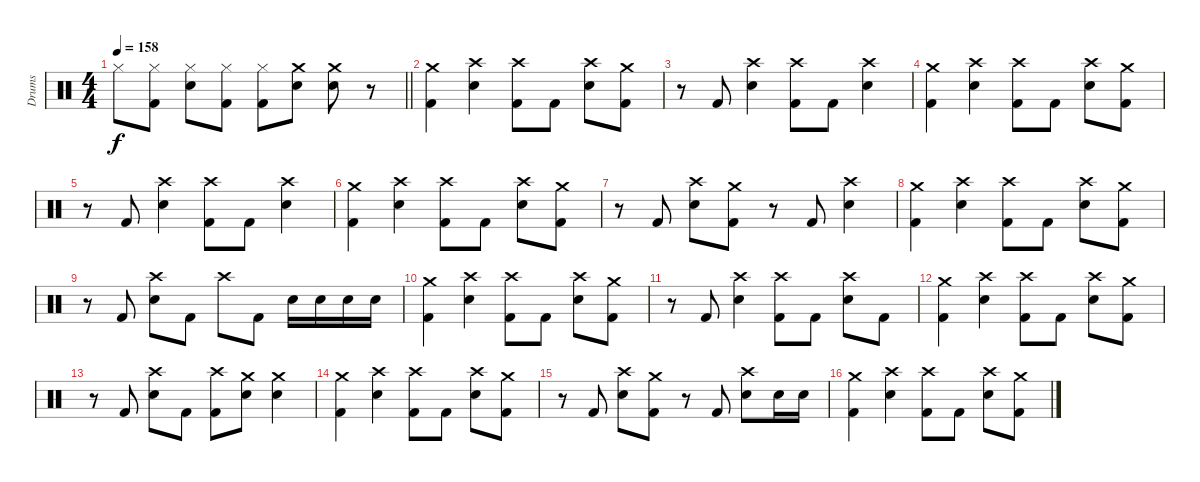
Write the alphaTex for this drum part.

\track ("Drums" "Drums") {instrument percussion}
\staff {score}
\articulation defaults
\ts (4 4)
\tempo 158
\clef neutral
\barLineRight lightlight
\ks c "Hi-Hat (closed)".8{dy f}
("Hi-Hat (closed)" "Kick (hit) 2").8 ("Hi-Hat (closed)" "Electric Snare (hit)").8 ("Hi-Hat (closed)" "Kick (hit) 2").8 ("Hi-Hat (closed)" "Kick (hit) 2").8 ("Crash medium (hit)" "Electric Snare (hit)").8 ("Crash medium (hit)" "Electric Snare (hit)").8 r.8 |
("Crash medium (hit)" "Kick (hit) 2").4 ("Crash high (hit)" "Electric Snare (hit)").4 ("Crash high (hit)" "Kick (hit) 2").8 "Kick (hit) 2".8 ("Crash high (hit)" "Electric Snare (hit)").8 ("Crash medium (hit)" "Kick (hit) 2").8 |
r.8 "Kick (hit) 2".8 ("Crash high (hit)" "Electric Snare (hit)").4 ("Crash high (hit)" "Kick (hit) 2").8 "Kick (hit) 2".8 ("Crash high (hit)" "Electric Snare (hit)").4 |
("Crash medium (hit)" "Kick (hit) 2").4 ("Crash high (hit)" "Electric Snare (hit)").4 ("Crash high (hit)" "Kick (hit) 2").8 "Kick (hit) 2".8 ("Crash high (hit)" "Electric Snare (hit)").8 ("Crash medium (hit)" "Kick (hit) 2").8 |
r.8 "Kick (hit) 2".8 ("Crash high (hit)" "Electric Snare (hit)").4 ("Crash high (hit)" "Kick (hit) 2").8 "Kick (hit) 2".8 ("Crash high (hit)" "Electric Snare (hit)").4 |
("Crash medium (hit)" "Kick (hit) 2").4 ("Crash high (hit)" "Electric Snare (hit)").4 ("Crash high (hit)" "Kick (hit) 2").8 "Kick (hit) 2".8 ("Crash high (hit)" "Electric Snare (hit)").8 ("Crash medium (hit)" "Kick (hit) 2").8 |
r.8 "Kick (hit) 2".8 ("Crash high (hit)" "Electric Snare (hit)").8 ("Crash medium (hit)" "Kick (hit) 2").8 r.8 "Kick (hit) 2".8 ("Crash high (hit)" "Electric Snare (hit)").4 |
("Crash medium (hit)" "Kick (hit) 2").4 ("Crash high (hit)" "Electric Snare (hit)").4 ("Crash high (hit)" "Kick (hit) 2").8 "Kick (hit) 2".8 ("Crash high (hit)" "Electric Snare (hit)").8 ("Crash medium (hit)" "Kick (hit) 2").8 |
r.8 "Kick (hit) 2".8 ("Crash high (hit)" "Electric Snare (hit)").8 "Kick (hit) 2".8 "Crash high (hit)".8 "Kick (hit) 2".8 "Electric Snare (hit)".16 "Electric Snare (hit)".16 "Electric Snare (hit)".16 "Electric Snare (hit)".16 |
("Crash medium (hit)" "Kick (hit) 2").4 ("Crash high (hit)" "Electric Snare (hit)").4 ("Crash high (hit)" "Kick (hit) 2").8 "Kick (hit) 2".8 ("Crash high (hit)" "Electric Snare (hit)").8 ("Crash medium (hit)" "Kick (hit) 2").8 |
r.8 "Kick (hit) 2".8 ("Crash high (hit)" "Electric Snare (hit)").4 ("Crash high (hit)" "Kick (hit) 2").8 "Kick (hit) 2".8 ("Crash high (hit)" "Electric Snare (hit)").8 "Kick (hit) 2".8 |
("Crash medium (hit)" "Kick (hit) 2").4 ("Crash high (hit)" "Electric Snare (hit)").4 ("Crash high (hit)" "Kick (hit) 2").8 "Kick (hit) 2".8 ("Crash high (hit)" "Electric Snare (hit)").8 ("Crash medium (hit)" "Kick (hit) 2").8 |
r.8 "Kick (hit) 2".8 ("Crash high (hit)" "Electric Snare (hit)").8 "Kick (hit) 2".8 ("Crash high (hit)" "Kick (hit) 2").8 ("Crash medium (hit)" "Electric Snare (hit)").8 ("Crash medium (hit)" "Electric Snare (hit)").4 |
("Crash medium (hit)" "Kick (hit) 2").4 ("Crash high (hit)" "Electric Snare (hit)").4 ("Crash high (hit)" "Kick (hit) 2").8 "Kick (hit) 2".8 ("Crash high (hit)" "Electric Snare (hit)").8 ("Crash medium (hit)" "Kick (hit) 2").8 |
r.8 "Kick (hit) 2".8 ("Crash high (hit)" "Electric Snare (hit)").8 ("Crash medium (hit)" "Kick (hit) 2").8 r.8 "Kick (hit) 2".8 ("Crash high (hit)" "Electric Snare (hit)").8 "Electric Snare (hit)".16 "Electric Snare (hit)".16 |
("Crash medium (hit)" "Kick (hit) 2").4 ("Crash high (hit)" "Electric Snare (hit)").4 ("Crash high (hit)" "Kick (hit) 2").8 "Kick (hit) 2".8 ("Crash high (hit)" "Electric Snare (hit)").8 ("Crash medium (hit)" "Kick (hit) 2").8
